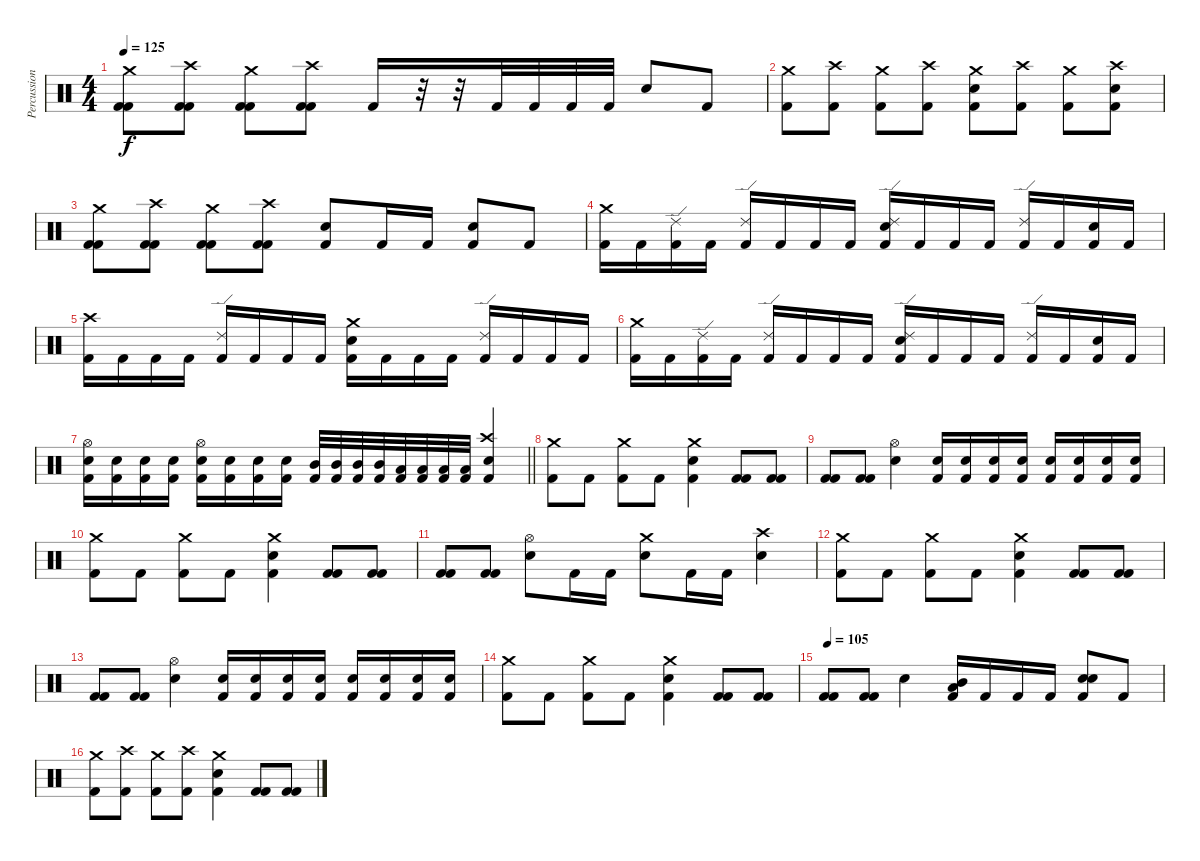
\track ("Percussion" "Percussion") {instrument percussion}
\staff {score}
\articulation defaults
\ts (4 4)
\tempo 125
\clef neutral
\ks c
("Crash medium (hit)" "Kick (hit) 2" "Kick (hit) 2").8{dy f} ("Crash high (hit)" "Kick (hit) 2" "Kick (hit) 2").8 ("Crash medium (hit)" "Kick (hit) 2" "Kick (hit) 2").8 ("Crash high (hit)" "Kick (hit) 2" "Kick (hit) 2").8 "Kick (hit) 2".16 r.32 r.32 "Kick (hit) 2".32 "Kick (hit) 2".32 "Kick (hit) 2".32 "Kick (hit) 2".32 "Electric Snare (hit)".8 "Kick (hit) 2".8 |
("Crash medium (hit)" "Kick (hit) 2").8 ("Crash high (hit)" "Kick (hit) 2").8 ("Crash medium (hit)" "Kick (hit) 2").8 ("Crash high (hit)" "Kick (hit) 2").8 ("Crash medium (hit)" "Kick (hit) 2" "Electric Snare (hit)").8 ("Crash high (hit)" "Kick (hit) 2").8 ("Crash medium (hit)" "Kick (hit) 2").8 ("Crash high (hit)" "Kick (hit) 2" "Electric Snare (hit)").8 |
("Crash medium (hit)" "Kick (hit) 2" "Kick (hit) 2").8 ("Crash high (hit)" "Kick (hit) 2" "Kick (hit) 2").8 ("Crash medium (hit)" "Kick (hit) 2" "Kick (hit) 2").8 ("Crash high (hit)" "Kick (hit) 2" "Kick (hit) 2").8 ("Electric Snare (hit)" "Kick (hit) 2").8 "Kick (hit) 2".16 "Kick (hit) 2".16 ("Electric Snare (hit)" "Kick (hit) 2").8 "Kick (hit) 2".8 |
("Crash medium (hit)" "Kick (hit) 2").16 "Kick (hit) 2".16 ("Ride (edge) 2" "Kick (hit) 2").16 "Kick (hit) 2".16 ("Ride (edge) 2" "Kick (hit) 2").16 "Kick (hit) 2".16 "Kick (hit) 2".16 "Kick (hit) 2".16 ("Ride (edge) 2" "Kick (hit) 2" "Electric Snare (hit)").16 "Kick (hit) 2".16 "Kick (hit) 2".16 "Kick (hit) 2".16 ("Ride (edge) 2" "Kick (hit) 2").16 "Kick (hit) 2".16 ("Kick (hit) 2" "Electric Snare (hit)").16 "Kick (hit) 2".16 |
("Crash high (hit)" "Kick (hit) 2").16 "Kick (hit) 2".16 "Kick (hit) 2".16 "Kick (hit) 2".16 ("Ride (edge) 2" "Kick (hit) 2").16 "Kick (hit) 2".16 "Kick (hit) 2".16 "Kick (hit) 2".16 ("Crash medium (hit)" "Kick (hit) 2" "Electric Snare (hit)").16 "Kick (hit) 2".16 "Kick (hit) 2".16 "Kick (hit) 2".16 ("Ride (edge) 2" "Kick (hit) 2").16 "Kick (hit) 2".16 "Kick (hit) 2".16 "Kick (hit) 2".16 |
("Crash medium (hit)" "Kick (hit) 2").16 "Kick (hit) 2".16 ("Ride (edge) 2" "Kick (hit) 2").16 "Kick (hit) 2".16 ("Ride (edge) 2" "Kick (hit) 2").16 "Kick (hit) 2".16 "Kick (hit) 2".16 "Kick (hit) 2".16 ("Ride (edge) 2" "Kick (hit) 2" "Electric Snare (hit)").16 "Kick (hit) 2".16 "Kick (hit) 2".16 "Kick (hit) 2".16 ("Ride (edge) 2" "Kick (hit) 2").16 "Kick (hit) 2".16 ("Kick (hit) 2" "Electric Snare (hit)").16 "Kick (hit) 2".16 |
\barLineRight lightlight
("Hi-Hat (open)" "Kick (hit) 2" "Electric Snare (hit)").16 ("Kick (hit) 2" "Electric Snare (hit)").16 ("Kick (hit) 2" "Electric Snare (hit)").16 ("Kick (hit) 2" "Electric Snare (hit)").16 ("Hi-Hat (open)" "Kick (hit) 2" "Electric Snare (hit)").16 ("Kick (hit) 2" "Electric Snare (hit)").16 ("Kick (hit) 2" "Electric Snare (hit)").16 ("Kick (hit) 2" "Electric Snare (hit)").16 ("Mid Tom (hit)" "Kick (hit) 2").32 ("Mid Tom (hit)" "Kick (hit) 2").32 ("Mid Tom (hit)" "Kick (hit) 2").32 ("Mid Tom (hit)" "Kick (hit) 2").32 ("Low Tom (hit)" "Kick (hit) 2").32 ("Low Tom (hit)" "Kick (hit) 2").32 ("Low Tom (hit)" "Kick (hit) 2").32 ("Low Tom (hit)" "Kick (hit) 2").32 ("Electric Snare (hit)" "Crash high (hit)" "Kick (hit) 2").4 |
("Crash medium (hit)" "Kick (hit) 2").8 "Kick (hit) 2".8 ("Crash medium (hit)" "Kick (hit) 2").8 "Kick (hit) 2".8 ("Crash medium (hit)" "Kick (hit) 2" "Electric Snare (hit)").4 ("Kick (hit) 2" "Kick (hit) 2").8 ("Kick (hit) 2" "Kick (hit) 2").8 |
("Kick (hit) 2" "Kick (hit) 2").8 ("Kick (hit) 2" "Kick (hit) 2").8 ("Hi-Hat (open)" "Electric Snare (hit)").4 ("Electric Snare (hit)" "Kick (hit) 2").16 ("Electric Snare (hit)" "Kick (hit) 2").16 ("Electric Snare (hit)" "Kick (hit) 2").16 ("Electric Snare (hit)" "Kick (hit) 2").16 ("Electric Snare (hit)" "Kick (hit) 2").16 ("Electric Snare (hit)" "Kick (hit) 2").16 ("Electric Snare (hit)" "Kick (hit) 2").16 ("Electric Snare (hit)" "Kick (hit) 2").16 |
("Crash medium (hit)" "Kick (hit) 2").8 "Kick (hit) 2".8 ("Crash medium (hit)" "Kick (hit) 2").8 "Kick (hit) 2".8 ("Crash medium (hit)" "Kick (hit) 2" "Electric Snare (hit)").4 ("Kick (hit) 2" "Kick (hit) 2").8 ("Kick (hit) 2" "Kick (hit) 2").8 |
("Kick (hit) 2" "Kick (hit) 2").8 ("Kick (hit) 2" "Kick (hit) 2").8 ("Hi-Hat (open)" "Electric Snare (hit)").8 "Kick (hit) 2".16 "Kick (hit) 2".16 ("Crash medium (hit)" "Electric Snare (hit)").8 "Kick (hit) 2".16 "Kick (hit) 2".16 ("Crash high (hit)" "Electric Snare (hit)").4 |
("Crash medium (hit)" "Kick (hit) 2").8 "Kick (hit) 2".8 ("Crash medium (hit)" "Kick (hit) 2").8 "Kick (hit) 2".8 ("Crash medium (hit)" "Kick (hit) 2" "Electric Snare (hit)").4 ("Kick (hit) 2" "Kick (hit) 2").8 ("Kick (hit) 2" "Kick (hit) 2").8 |
("Kick (hit) 2" "Kick (hit) 2").8 ("Kick (hit) 2" "Kick (hit) 2").8 ("Hi-Hat (open)" "Electric Snare (hit)").4 ("Electric Snare (hit)" "Kick (hit) 2").16 ("Electric Snare (hit)" "Kick (hit) 2").16 ("Electric Snare (hit)" "Kick (hit) 2").16 ("Electric Snare (hit)" "Kick (hit) 2").16 ("Electric Snare (hit)" "Kick (hit) 2").16 ("Electric Snare (hit)" "Kick (hit) 2").16 ("Electric Snare (hit)" "Kick (hit) 2").16 ("Electric Snare (hit)" "Kick (hit) 2").16 |
("Crash medium (hit)" "Kick (hit) 2").8 "Kick (hit) 2".8 ("Crash medium (hit)" "Kick (hit) 2").8 "Kick (hit) 2".8 ("Crash medium (hit)" "Kick (hit) 2" "Electric Snare (hit)").4 ("Kick (hit) 2" "Kick (hit) 2").8 ("Kick (hit) 2" "Kick (hit) 2").8 |
\tempo 105
("Kick (hit) 2" "Kick (hit) 2").8 ("Kick (hit) 2" "Kick (hit) 2").8 "Electric Snare (hit)".4 ("Mid Tom (hit)" "Low Tom (hit)" "Kick (hit) 2").16 "Kick (hit) 2".16 "Kick (hit) 2".16 "Kick (hit) 2".16 ("Electric Snare (hit)" "Electric Snare (hit)" "Kick (hit) 2").8 "Kick (hit) 2".8 |
("Crash medium (hit)" "Kick (hit) 2").8 ("Crash high (hit)" "Kick (hit) 2").8 ("Crash medium (hit)" "Kick (hit) 2").8 ("Crash high (hit)" "Kick (hit) 2").8 ("Crash medium (hit)" "Kick (hit) 2" "Electric Snare (hit)").4 ("Kick (hit) 2" "Kick (hit) 2").8 ("Kick (hit) 2" "Kick (hit) 2").8
